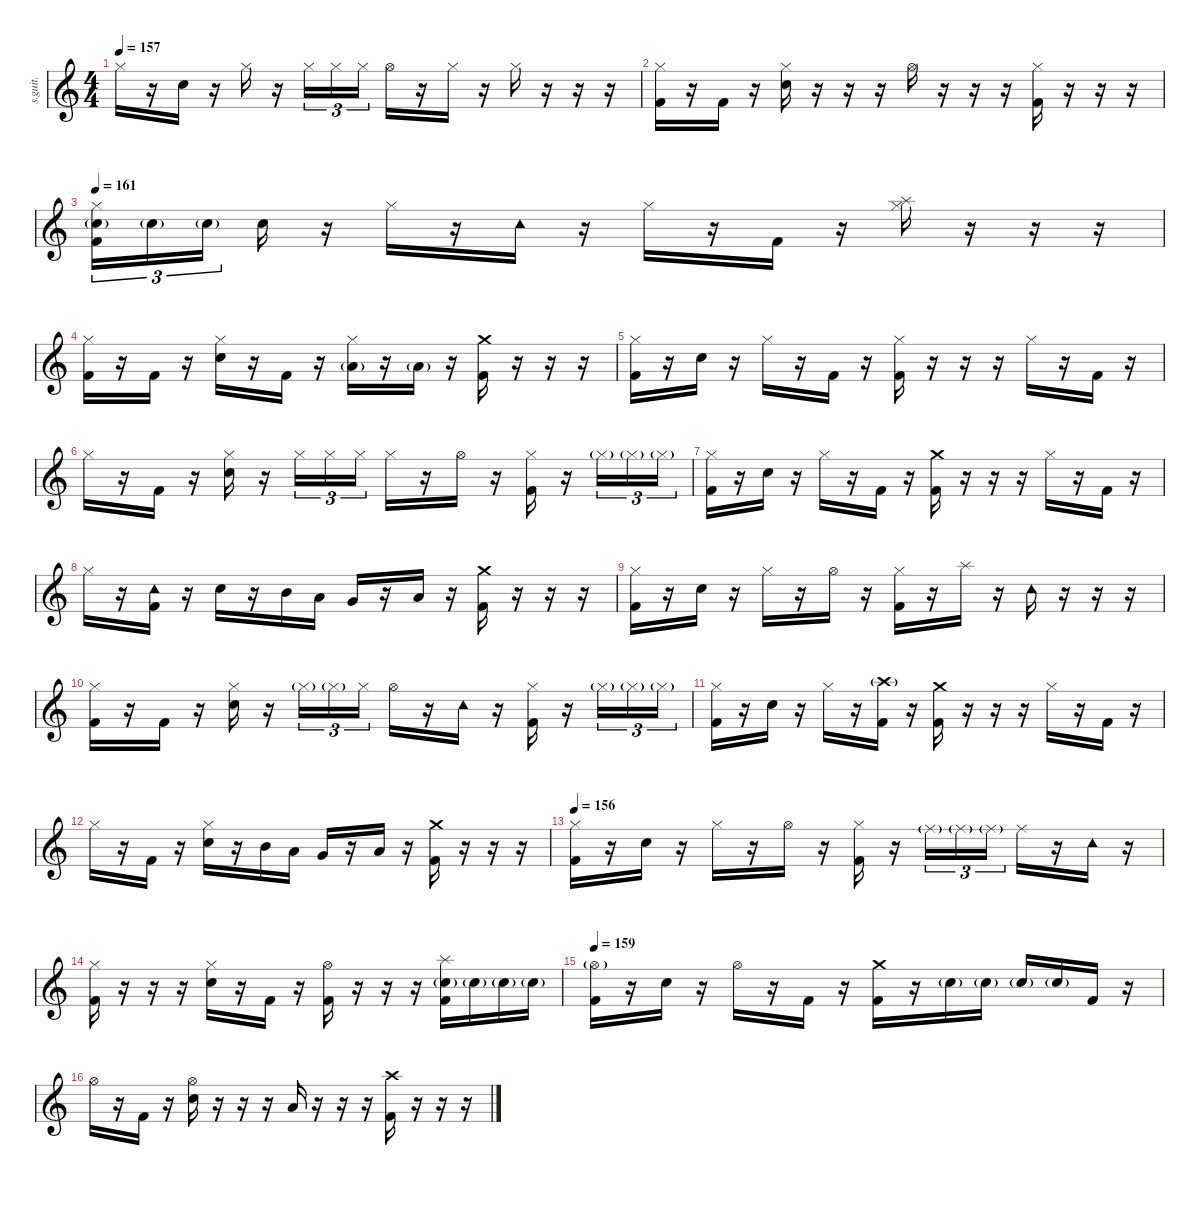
\defaultSystemsLayout 4
\hideDynamics
\bracketExtendMode nobrackets
\track ("Drumkit" "s.guit.") {instrument percussion}
\staff {score}
\articulation defaults
\ts (4 4)
\tempo 157
\clef g2
\ks c "Hi-Hat (closed)".16{lyrics (0 "") lyrics (1 "") lyrics (2 "") lyrics (3 "") lyrics (4 "") dy f}
r.16 "Electric Snare (hit)".16{lyrics (0 "") lyrics (1 "") lyrics (2 "") lyrics (3 "") lyrics (4 "")} r.16 "Hi-Hat (closed)".16{lyrics (0 "") lyrics (1 "") lyrics (2 "") lyrics (3 "") lyrics (4 "")} r.16 "Hi-Hat (closed)".16{tu (3 2) lyrics (0 "") lyrics (1 "") lyrics (2 "") lyrics (3 "") lyrics (4 "")} "Hi-Hat (closed)".16{tu (3 2) lyrics (0 "") lyrics (1 "") lyrics (2 "") lyrics (3 "") lyrics (4 "")} "Hi-Hat (closed)".16{tu (3 2) lyrics (0 "") lyrics (1 "") lyrics (2 "") lyrics (3 "") lyrics (4 "")} "Hi-Hat (open)".16{lyrics (0 "") lyrics (1 "") lyrics (2 "") lyrics (3 "") lyrics (4 "")} r.16 "Hi-Hat (closed)".16{lyrics (0 "") lyrics (1 "") lyrics (2 "") lyrics (3 "") lyrics (4 "")} r.16 "Hi-Hat (closed)".16{lyrics (0 "") lyrics (1 "") lyrics (2 "") lyrics (3 "") lyrics (4 "")} r.16 r.16 r.16 |
("Hi-Hat (closed)" "Kick (hit) 2").16{lyrics (0 "") lyrics (1 "") lyrics (2 "") lyrics (3 "") lyrics (4 "")} r.16 "Kick (hit) 2".16{lyrics (0 "") lyrics (1 "") lyrics (2 "") lyrics (3 "") lyrics (4 "")} r.16 ("Hi-Hat (closed)" "Electric Snare (hit)").16{lyrics (0 "") lyrics (1 "") lyrics (2 "") lyrics (3 "") lyrics (4 "")} r.16 r.16 r.16 "Hi-Hat (open)".16{lyrics (0 "") lyrics (1 "") lyrics (2 "") lyrics (3 "") lyrics (4 "")} r.16 r.16 r.16 ("Hi-Hat (closed)" "Kick (hit) 2").16{lyrics (0 "") lyrics (1 "") lyrics (2 "") lyrics (3 "") lyrics (4 "")} r.16 r.16 r.16 |
\tempo 161
("Hi-Hat (closed)" "Electric Snare (hit)"{g} "Kick (hit) 2").16{tu (3 2) lyrics (0 "") lyrics (1 "") lyrics (2 "") lyrics (3 "") lyrics (4 "")} "Electric Snare (hit)"{g}.16{tu (3 2) lyrics (0 "") lyrics (1 "") lyrics (2 "") lyrics (3 "") lyrics (4 "") dy mp} "Electric Snare (hit)"{g}.16{tu (3 2) lyrics (0 "") lyrics (1 "") lyrics (2 "") lyrics (3 "") lyrics (4 "")} "Electric Snare (hit)".16{lyrics (0 "") lyrics (1 "") lyrics (2 "") lyrics (3 "") lyrics (4 "") dy f} r.16 "Hi-Hat (closed)".16{lyrics (0 "") lyrics (1 "") lyrics (2 "") lyrics (3 "") lyrics (4 "")} r.16 "Tambourine (hit)".16{lyrics (0 "") lyrics (1 "") lyrics (2 "") lyrics (3 "") lyrics (4 "")} r.16 "Hi-Hat (closed)".16{lyrics (0 "") lyrics (1 "") lyrics (2 "") lyrics (3 "") lyrics (4 "")} r.16 "Kick (hit) 2".16{lyrics (0 "") lyrics (1 "") lyrics (2 "") lyrics (3 "") lyrics (4 "")} r.16 ("Splash (hit)" "Hi-Hat (closed)").16{lyrics (0 "") lyrics (1 "") lyrics (2 "") lyrics (3 "") lyrics (4 "")} r.16 r.16 r.16 |
("Hi-Hat (closed)" "Kick (hit) 2").16{lyrics (0 "") lyrics (1 "") lyrics (2 "") lyrics (3 "") lyrics (4 "")} r.16 "Kick (hit) 2".16{lyrics (0 "") lyrics (1 "") lyrics (2 "") lyrics (3 "") lyrics (4 "")} r.16 ("Hi-Hat (closed)" "Electric Snare (hit)").16{lyrics (0 "") lyrics (1 "") lyrics (2 "") lyrics (3 "") lyrics (4 "")} r.16 "Kick (hit) 2".16{lyrics (0 "") lyrics (1 "") lyrics (2 "") lyrics (3 "") lyrics (4 "")} r.16 ("Hi-Hat (closed)" "Low Floor Tom (hit)"{g}).16{lyrics (0 "") lyrics (1 "") lyrics (2 "") lyrics (3 "") lyrics (4 "")} r.16 "Low Floor Tom (hit)"{g}.16{lyrics (0 "") lyrics (1 "") lyrics (2 "") lyrics (3 "") lyrics (4 "") dy mp} r.16 ("Crash medium (hit)" "Kick (hit) 2").16{lyrics (0 "") lyrics (1 "") lyrics (2 "") lyrics (3 "") lyrics (4 "") dy f} r.16 r.16 r.16 |
("Hi-Hat (closed)" "Kick (hit) 2").16{lyrics (0 "") lyrics (1 "") lyrics (2 "") lyrics (3 "") lyrics (4 "")} r.16 "Electric Snare (hit)".16{lyrics (0 "") lyrics (1 "") lyrics (2 "") lyrics (3 "") lyrics (4 "")} r.16 "Hi-Hat (closed)".16{lyrics (0 "") lyrics (1 "") lyrics (2 "") lyrics (3 "") lyrics (4 "")} r.16 "Kick (hit) 2".16{lyrics (0 "") lyrics (1 "") lyrics (2 "") lyrics (3 "") lyrics (4 "")} r.16 ("Hi-Hat (closed)" "Kick (hit) 2").16{lyrics (0 "") lyrics (1 "") lyrics (2 "") lyrics (3 "") lyrics (4 "")} r.16 r.16 r.16 "Hi-Hat (closed)".16{lyrics (0 "") lyrics (1 "") lyrics (2 "") lyrics (3 "") lyrics (4 "")} r.16 "Kick (hit) 2".16{lyrics (0 "") lyrics (1 "") lyrics (2 "") lyrics (3 "") lyrics (4 "")} r.16 |
"Hi-Hat (closed)".16{lyrics (0 "") lyrics (1 "") lyrics (2 "") lyrics (3 "") lyrics (4 "")} r.16 "Kick (hit) 2".16{lyrics (0 "") lyrics (1 "") lyrics (2 "") lyrics (3 "") lyrics (4 "")} r.16 ("Hi-Hat (closed)" "Electric Snare (hit)").16{lyrics (0 "") lyrics (1 "") lyrics (2 "") lyrics (3 "") lyrics (4 "")} r.16 "Hi-Hat (closed)".16{tu (3 2) lyrics (0 "") lyrics (1 "") lyrics (2 "") lyrics (3 "") lyrics (4 "")} "Hi-Hat (closed)".16{tu (3 2) lyrics (0 "") lyrics (1 "") lyrics (2 "") lyrics (3 "") lyrics (4 "")} "Hi-Hat (closed)".16{tu (3 2) lyrics (0 "") lyrics (1 "") lyrics (2 "") lyrics (3 "") lyrics (4 "")} "Hi-Hat (closed)".16{lyrics (0 "") lyrics (1 "") lyrics (2 "") lyrics (3 "") lyrics (4 "")} r.16 "Hi-Hat (open)".16{lyrics (0 "") lyrics (1 "") lyrics (2 "") lyrics (3 "") lyrics (4 "")} r.16 ("Hi-Hat (closed)" "Kick (hit) 2").16{lyrics (0 "") lyrics (1 "") lyrics (2 "") lyrics (3 "") lyrics (4 "")} r.16 "Hi-Hat (closed)"{g}.16{tu (3 2) lyrics (0 "") lyrics (1 "") lyrics (2 "") lyrics (3 "") lyrics (4 "") dy mp} "Hi-Hat (closed)"{g}.16{tu (3 2) lyrics (0 "") lyrics (1 "") lyrics (2 "") lyrics (3 "") lyrics (4 "")} "Hi-Hat (closed)"{g}.16{tu (3 2) lyrics (0 "") lyrics (1 "") lyrics (2 "") lyrics (3 "") lyrics (4 "")} |
("Hi-Hat (closed)" "Kick (hit) 2").16{lyrics (0 "") lyrics (1 "") lyrics (2 "") lyrics (3 "") lyrics (4 "") dy f} r.16 "Electric Snare (hit)".16{lyrics (0 "") lyrics (1 "") lyrics (2 "") lyrics (3 "") lyrics (4 "")} r.16 "Hi-Hat (closed)".16{lyrics (0 "") lyrics (1 "") lyrics (2 "") lyrics (3 "") lyrics (4 "")} r.16 "Kick (hit) 2".16{lyrics (0 "") lyrics (1 "") lyrics (2 "") lyrics (3 "") lyrics (4 "")} r.16 ("Crash medium (hit)" "Kick (hit) 2").16{lyrics (0 "") lyrics (1 "") lyrics (2 "") lyrics (3 "") lyrics (4 "")} r.16 r.16 r.16 "Hi-Hat (closed)".16{lyrics (0 "") lyrics (1 "") lyrics (2 "") lyrics (3 "") lyrics (4 "")} r.16 "Kick (hit) 2".16{lyrics (0 "") lyrics (1 "") lyrics (2 "") lyrics (3 "") lyrics (4 "")} r.16 |
"Hi-Hat (closed)".16{lyrics (0 "") lyrics (1 "") lyrics (2 "") lyrics (3 "") lyrics (4 "")} r.16 ("Tambourine (hit)" "Kick (hit) 2").16{lyrics (0 "") lyrics (1 "") lyrics (2 "") lyrics (3 "") lyrics (4 "")} r.16 "Electric Snare (hit)".16{lyrics (0 "") lyrics (1 "") lyrics (2 "") lyrics (3 "") lyrics (4 "")} r.16 "Mid Tom (hit)".16{lyrics (0 "") lyrics (1 "") lyrics (2 "") lyrics (3 "") lyrics (4 "")} "Low Tom (hit)".16{lyrics (0 "") lyrics (1 "") lyrics (2 "") lyrics (3 "") lyrics (4 "")} "Very Low Tom (hit)".16{lyrics (0 "") lyrics (1 "") lyrics (2 "") lyrics (3 "") lyrics (4 "")} r.16 "Low Floor Tom (hit)".16{lyrics (0 "") lyrics (1 "") lyrics (2 "") lyrics (3 "") lyrics (4 "")} r.16 ("Crash medium (hit)" "Kick (hit) 2").16{lyrics (0 "") lyrics (1 "") lyrics (2 "") lyrics (3 "") lyrics (4 "")} r.16 r.16 r.16 |
("Hi-Hat (closed)" "Kick (hit) 2").16{lyrics (0 "") lyrics (1 "") lyrics (2 "") lyrics (3 "") lyrics (4 "")} r.16 "Electric Snare (hit)".16{lyrics (0 "") lyrics (1 "") lyrics (2 "") lyrics (3 "") lyrics (4 "")} r.16 "Hi-Hat (closed)".16{lyrics (0 "") lyrics (1 "") lyrics (2 "") lyrics (3 "") lyrics (4 "")} r.16 "Hi-Hat (open)".16{lyrics (0 "") lyrics (1 "") lyrics (2 "") lyrics (3 "") lyrics (4 "")} r.16 ("Hi-Hat (closed)" "Kick (hit) 2").16{lyrics (0 "") lyrics (1 "") lyrics (2 "") lyrics (3 "") lyrics (4 "")} r.16 "Splash (hit)".16{lyrics (0 "") lyrics (1 "") lyrics (2 "") lyrics (3 "") lyrics (4 "")} r.16 "Tambourine (hit)".16{lyrics (0 "") lyrics (1 "") lyrics (2 "") lyrics (3 "") lyrics (4 "")} r.16 r.16 r.16 |
("Hi-Hat (closed)" "Kick (hit) 2").16{lyrics (0 "") lyrics (1 "") lyrics (2 "") lyrics (3 "") lyrics (4 "")} r.16 "Kick (hit) 2".16{lyrics (0 "") lyrics (1 "") lyrics (2 "") lyrics (3 "") lyrics (4 "")} r.16 ("Hi-Hat (closed)" "Electric Snare (hit)").16{lyrics (0 "") lyrics (1 "") lyrics (2 "") lyrics (3 "") lyrics (4 "")} r.16 "Hi-Hat (closed)"{g}.16{tu (3 2) lyrics (0 "") lyrics (1 "") lyrics (2 "") lyrics (3 "") lyrics (4 "") dy mp} "Hi-Hat (closed)"{g}.16{tu (3 2) lyrics (0 "") lyrics (1 "") lyrics (2 "") lyrics (3 "") lyrics (4 "")} "Hi-Hat (closed)".16{tu (3 2) lyrics (0 "") lyrics (1 "") lyrics (2 "") lyrics (3 "") lyrics (4 "") dy f} "Hi-Hat (open)".16{lyrics (0 "") lyrics (1 "") lyrics (2 "") lyrics (3 "") lyrics (4 "")} r.16 "Tambourine (hit)".16{lyrics (0 "") lyrics (1 "") lyrics (2 "") lyrics (3 "") lyrics (4 "")} r.16 ("Hi-Hat (closed)" "Kick (hit) 2").16{lyrics (0 "") lyrics (1 "") lyrics (2 "") lyrics (3 "") lyrics (4 "")} r.16 "Hi-Hat (closed)"{g}.16{tu (3 2) lyrics (0 "") lyrics (1 "") lyrics (2 "") lyrics (3 "") lyrics (4 "") dy mp} "Hi-Hat (closed)"{g}.16{tu (3 2) lyrics (0 "") lyrics (1 "") lyrics (2 "") lyrics (3 "") lyrics (4 "")} "Hi-Hat (closed)"{g}.16{tu (3 2) lyrics (0 "") lyrics (1 "") lyrics (2 "") lyrics (3 "") lyrics (4 "")} |
("Hi-Hat (closed)" "Kick (hit) 2").16{lyrics (0 "") lyrics (1 "") lyrics (2 "") lyrics (3 "") lyrics (4 "") dy f} r.16 "Electric Snare (hit)".16{lyrics (0 "") lyrics (1 "") lyrics (2 "") lyrics (3 "") lyrics (4 "")} r.16 "Hi-Hat (closed)".16{lyrics (0 "") lyrics (1 "") lyrics (2 "") lyrics (3 "") lyrics (4 "")} r.16 ("Crash high (hit)"{g} "Kick (hit) 2").16{lyrics (0 "") lyrics (1 "") lyrics (2 "") lyrics (3 "") lyrics (4 "")} r.16 ("Crash medium (hit)" "Kick (hit) 2").16{lyrics (0 "") lyrics (1 "") lyrics (2 "") lyrics (3 "") lyrics (4 "")} r.16 r.16 r.16 "Hi-Hat (closed)".16{lyrics (0 "") lyrics (1 "") lyrics (2 "") lyrics (3 "") lyrics (4 "")} r.16 "Kick (hit) 2".16{lyrics (0 "") lyrics (1 "") lyrics (2 "") lyrics (3 "") lyrics (4 "")} r.16 |
"Hi-Hat (closed)".16{lyrics (0 "") lyrics (1 "") lyrics (2 "") lyrics (3 "") lyrics (4 "")} r.16 "Kick (hit) 2".16{lyrics (0 "") lyrics (1 "") lyrics (2 "") lyrics (3 "") lyrics (4 "")} r.16 ("Hi-Hat (closed)" "Electric Snare (hit)").16{lyrics (0 "") lyrics (1 "") lyrics (2 "") lyrics (3 "") lyrics (4 "")} r.16 "Mid Tom (hit)".16{lyrics (0 "") lyrics (1 "") lyrics (2 "") lyrics (3 "") lyrics (4 "")} "Low Tom (hit)".16{lyrics (0 "") lyrics (1 "") lyrics (2 "") lyrics (3 "") lyrics (4 "")} "Very Low Tom (hit)".16{lyrics (0 "") lyrics (1 "") lyrics (2 "") lyrics (3 "") lyrics (4 "")} r.16 "Low Floor Tom (hit)".16{lyrics (0 "") lyrics (1 "") lyrics (2 "") lyrics (3 "") lyrics (4 "")} r.16 ("Crash medium (hit)" "Kick (hit) 2").16{lyrics (0 "") lyrics (1 "") lyrics (2 "") lyrics (3 "") lyrics (4 "")} r.16 r.16 r.16 |
\tempo 156
("Hi-Hat (closed)" "Kick (hit) 2").16{lyrics (0 "") lyrics (1 "") lyrics (2 "") lyrics (3 "") lyrics (4 "")} r.16 "Electric Snare (hit)".16{lyrics (0 "") lyrics (1 "") lyrics (2 "") lyrics (3 "") lyrics (4 "")} r.16 "Hi-Hat (closed)".16{lyrics (0 "") lyrics (1 "") lyrics (2 "") lyrics (3 "") lyrics (4 "")} r.16 "Hi-Hat (open)".16{lyrics (0 "") lyrics (1 "") lyrics (2 "") lyrics (3 "") lyrics (4 "")} r.16 ("Hi-Hat (closed)" "Kick (hit) 2").16{lyrics (0 "") lyrics (1 "") lyrics (2 "") lyrics (3 "") lyrics (4 "")} r.16 "Ride (middle)"{g}.16{tu (3 2) lyrics (0 "") lyrics (1 "") lyrics (2 "") lyrics (3 "") lyrics (4 "") dy mp} "Ride (middle)"{g}.16{tu (3 2) lyrics (0 "") lyrics (1 "") lyrics (2 "") lyrics (3 "") lyrics (4 "")} "Ride (middle)"{g}.16{tu (3 2) lyrics (0 "") lyrics (1 "") lyrics (2 "") lyrics (3 "") lyrics (4 "")} "Ride (middle)".16{lyrics (0 "") lyrics (1 "") lyrics (2 "") lyrics (3 "") lyrics (4 "") dy f} r.16 "Tambourine (hit)".16{lyrics (0 "") lyrics (1 "") lyrics (2 "") lyrics (3 "") lyrics (4 "")} r.16 |
("Hi-Hat (closed)" "Kick (hit) 2").16{lyrics (0 "") lyrics (1 "") lyrics (2 "") lyrics (3 "") lyrics (4 "")} r.16 r.16 r.16 ("Hi-Hat (closed)" "Electric Snare (hit)").16{lyrics (0 "") lyrics (1 "") lyrics (2 "") lyrics (3 "") lyrics (4 "")} r.16 "Kick (hit) 2".16{lyrics (0 "") lyrics (1 "") lyrics (2 "") lyrics (3 "") lyrics (4 "")} r.16 ("Hi-Hat (open)" "Kick (hit) 2").16{lyrics (0 "") lyrics (1 "") lyrics (2 "") lyrics (3 "") lyrics (4 "")} r.16 r.16 r.16 ("Splash (hit)" "Electric Snare (hit)"{g} "Kick (hit) 2").16{lyrics (0 "") lyrics (1 "") lyrics (2 "") lyrics (3 "") lyrics (4 "")} "Electric Snare (hit)"{g}.16{lyrics (0 "") lyrics (1 "") lyrics (2 "") lyrics (3 "") lyrics (4 "") dy mp} "Electric Snare (hit)"{g}.16{lyrics (0 "") lyrics (1 "") lyrics (2 "") lyrics (3 "") lyrics (4 "")} "Electric Snare (hit)"{g}.16{lyrics (0 "") lyrics (1 "") lyrics (2 "") lyrics (3 "") lyrics (4 "")} |
\tempo 159
("Hi-Hat (open)"{g} "Kick (hit) 2").16{lyrics (0 "") lyrics (1 "") lyrics (2 "") lyrics (3 "") lyrics (4 "")} r.16 "Electric Snare (hit)".16{lyrics (0 "") lyrics (1 "") lyrics (2 "") lyrics (3 "") lyrics (4 "") dy f} r.16 "Hi-Hat (open)".16{lyrics (0 "") lyrics (1 "") lyrics (2 "") lyrics (3 "") lyrics (4 "")} r.16 "Kick (hit) 2".16{lyrics (0 "") lyrics (1 "") lyrics (2 "") lyrics (3 "") lyrics (4 "")} r.16 ("Crash medium (hit)" "Kick (hit) 2").16{lyrics (0 "") lyrics (1 "") lyrics (2 "") lyrics (3 "") lyrics (4 "")} r.16 "Electric Snare (hit)"{g}.16{lyrics (0 "") lyrics (1 "") lyrics (2 "") lyrics (3 "") lyrics (4 "") dy mp} "Electric Snare (hit)"{g}.16{lyrics (0 "") lyrics (1 "") lyrics (2 "") lyrics (3 "") lyrics (4 "")} "Electric Snare (hit)"{g}.16{lyrics (0 "") lyrics (1 "") lyrics (2 "") lyrics (3 "") lyrics (4 "")} "Electric Snare (hit)"{g}.16{lyrics (0 "") lyrics (1 "") lyrics (2 "") lyrics (3 "") lyrics (4 "")} "Kick (hit) 2".16{lyrics (0 "") lyrics (1 "") lyrics (2 "") lyrics (3 "") lyrics (4 "") dy f} r.16 |
"Hi-Hat (open)".16{lyrics (0 "") lyrics (1 "") lyrics (2 "") lyrics (3 "") lyrics (4 "")} r.16 "Kick (hit) 2".16{lyrics (0 "") lyrics (1 "") lyrics (2 "") lyrics (3 "") lyrics (4 "")} r.16 ("Hi-Hat (open)" "Electric Snare (hit)").16{lyrics (0 "") lyrics (1 "") lyrics (2 "") lyrics (3 "") lyrics (4 "")} r.16 r.16 r.16 "Low Floor Tom (hit)".16{lyrics (0 "") lyrics (1 "") lyrics (2 "") lyrics (3 "") lyrics (4 "")} r.16 r.16 r.16 ("Crash high (hit)" "Kick (hit) 2").16{lyrics (0 "") lyrics (1 "") lyrics (2 "") lyrics (3 "") lyrics (4 "")} r.16 r.16 r.16
